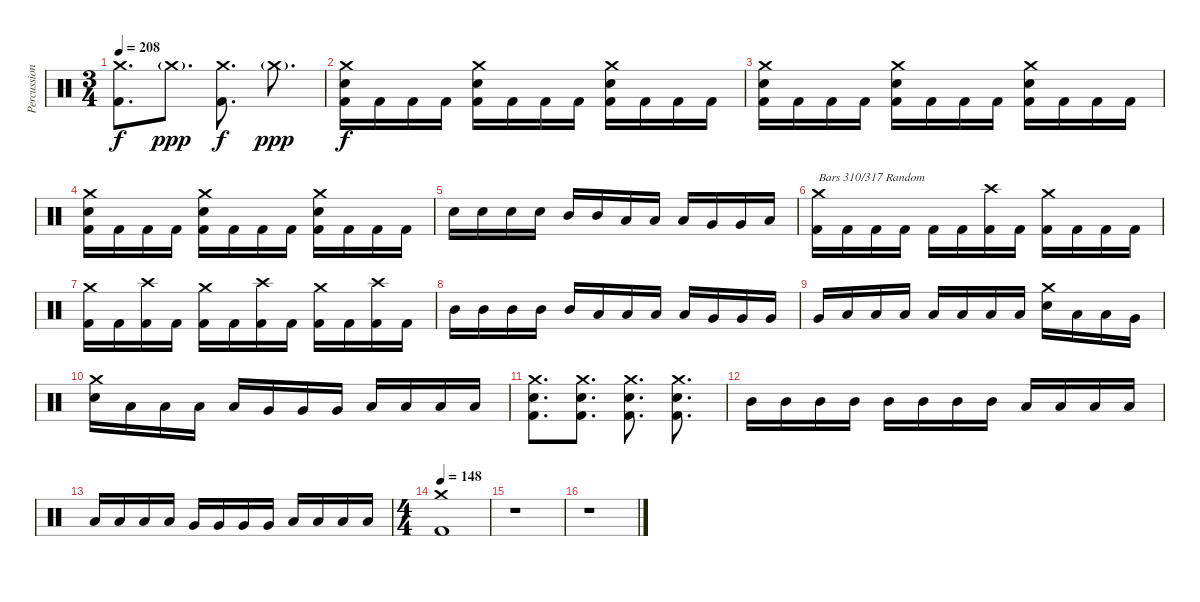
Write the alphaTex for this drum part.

\track ("Percussion" "Percussion") {instrument percussion}
\staff {score}
\articulation defaults
\ts (3 4)
\tempo 208
\clef neutral
\ks c
("Crash medium (hit)" "Kick (hit) 2").8{d dy f} "Crash medium (hit)"{g}.8{d dy ppp} ("Crash medium (hit)" "Kick (hit) 2").8{d dy f} "Crash medium (hit)"{g}.8{d dy ppp} |
("Crash medium (hit)" "Electric Snare (hit)" "Kick (hit) 2").16{dy f} "Kick (hit) 2".16 "Kick (hit) 2".16 "Kick (hit) 2".16 ("Crash medium (hit)" "Electric Snare (hit)" "Kick (hit) 2").16 "Kick (hit) 2".16 "Kick (hit) 2".16 "Kick (hit) 2".16 ("Crash medium (hit)" "Electric Snare (hit)" "Kick (hit) 2").16 "Kick (hit) 2".16 "Kick (hit) 2".16 "Kick (hit) 2".16 |
("Crash medium (hit)" "Electric Snare (hit)" "Kick (hit) 2").16 "Kick (hit) 2".16 "Kick (hit) 2".16 "Kick (hit) 2".16 ("Crash medium (hit)" "Electric Snare (hit)" "Kick (hit) 2").16 "Kick (hit) 2".16 "Kick (hit) 2".16 "Kick (hit) 2".16 ("Crash medium (hit)" "Electric Snare (hit)" "Kick (hit) 2").16 "Kick (hit) 2".16 "Kick (hit) 2".16 "Kick (hit) 2".16 |
("Crash medium (hit)" "Electric Snare (hit)" "Kick (hit) 2").16 "Kick (hit) 2".16 "Kick (hit) 2".16 "Kick (hit) 2".16 ("Crash medium (hit)" "Electric Snare (hit)" "Kick (hit) 2").16 "Kick (hit) 2".16 "Kick (hit) 2".16 "Kick (hit) 2".16 ("Crash medium (hit)" "Electric Snare (hit)" "Kick (hit) 2").16 "Kick (hit) 2".16 "Kick (hit) 2".16 "Kick (hit) 2".16 |
"Electric Snare (hit)".16 "Electric Snare (hit)".16 "Electric Snare (hit)".16 "Electric Snare (hit)".16 "Mid Tom (hit)".16 "Mid Tom (hit)".16 "Low Tom (hit)".16 "Low Tom (hit)".16 "Low Tom (hit)".16 "Very Low Tom (hit)".16 "Very Low Tom (hit)".16 "Low Floor Tom (hit)".16 |
("Crash medium (hit)" "Kick (hit) 2").16{txt "Bars 310/317 Random"} "Kick (hit) 2".16 "Kick (hit) 2".16 "Kick (hit) 2".16 "Kick (hit) 2".16 "Kick (hit) 2".16 ("Crash high (hit)" "Kick (hit) 2").16 "Kick (hit) 2".16 ("Crash medium (hit)" "Kick (hit) 2").16 "Kick (hit) 2".16 "Kick (hit) 2".16 "Kick (hit) 2".16 |
("Crash medium (hit)" "Kick (hit) 2").16 "Kick (hit) 2".16 ("Crash high (hit)" "Kick (hit) 2").16 "Kick (hit) 2".16 ("Crash medium (hit)" "Kick (hit) 2").16 "Kick (hit) 2".16 ("Crash high (hit)" "Kick (hit) 2").16 "Kick (hit) 2".16 ("Crash medium (hit)" "Kick (hit) 2").16 "Kick (hit) 2".16 ("Crash high (hit)" "Kick (hit) 2").16 "Kick (hit) 2".16 |
"Mid Tom (hit)".16 "Mid Tom (hit)".16 "Mid Tom (hit)".16 "Mid Tom (hit)".16 "Mid Tom (hit)".16 "Low Tom (hit)".16 "Low Tom (hit)".16 "Low Tom (hit)".16 "Low Tom (hit)".16 "Very Low Tom (hit)".16 "Very Low Tom (hit)".16 "Very Low Tom (hit)".16 |
"Very Low Tom (hit)".16 "Low Floor Tom (hit)".16 "Low Floor Tom (hit)".16 "Low Floor Tom (hit)".16 "Low Floor Tom (hit)".16 "Low Floor Tom (hit)".16 "Low Floor Tom (hit)".16 "Low Floor Tom (hit)".16 ("Crash medium (hit)" "Electric Snare (hit)").16 "Low Tom (hit)".16 "Low Tom (hit)".16 "Very Low Tom (hit)".16 |
("Crash medium (hit)" "Electric Snare (hit)").16 "Low Tom (hit)".16 "Low Tom (hit)".16 "Low Tom (hit)".16 "Low Tom (hit)".16 "Very Low Tom (hit)".16 "Very Low Tom (hit)".16 "Very Low Tom (hit)".16 "Low Floor Tom (hit)".16 "Low Floor Tom (hit)".16 "Low Floor Tom (hit)".16 "Low Floor Tom (hit)".16 |
("Crash medium (hit)" "Electric Snare (hit)" "Kick (hit) 2").8{d} ("Crash medium (hit)" "Electric Snare (hit)" "Kick (hit) 2").8{d} ("Crash medium (hit)" "Electric Snare (hit)" "Kick (hit) 2").8{d} ("Crash medium (hit)" "Electric Snare (hit)" "Kick (hit) 2").8{d} |
"Mid Tom (hit)".16 "Mid Tom (hit)".16 "Mid Tom (hit)".16 "Mid Tom (hit)".16 "Mid Tom (hit)".16 "Mid Tom (hit)".16 "Mid Tom (hit)".16 "Mid Tom (hit)".16 "Low Tom (hit)".16 "Low Tom (hit)".16 "Low Tom (hit)".16 "Low Tom (hit)".16 |
"Low Tom (hit)".16 "Low Tom (hit)".16 "Low Tom (hit)".16 "Low Tom (hit)".16 "Very Low Tom (hit)".16 "Very Low Tom (hit)".16 "Very Low Tom (hit)".16 "Very Low Tom (hit)".16 "Low Floor Tom (hit)".16 "Low Floor Tom (hit)".16 "Low Floor Tom (hit)".16 "Low Floor Tom (hit)".16 |
\ts (4 4)
\tempo 148
("Crash medium (hit)" "Kick (hit) 2").1 |
r.1 |
r.1
